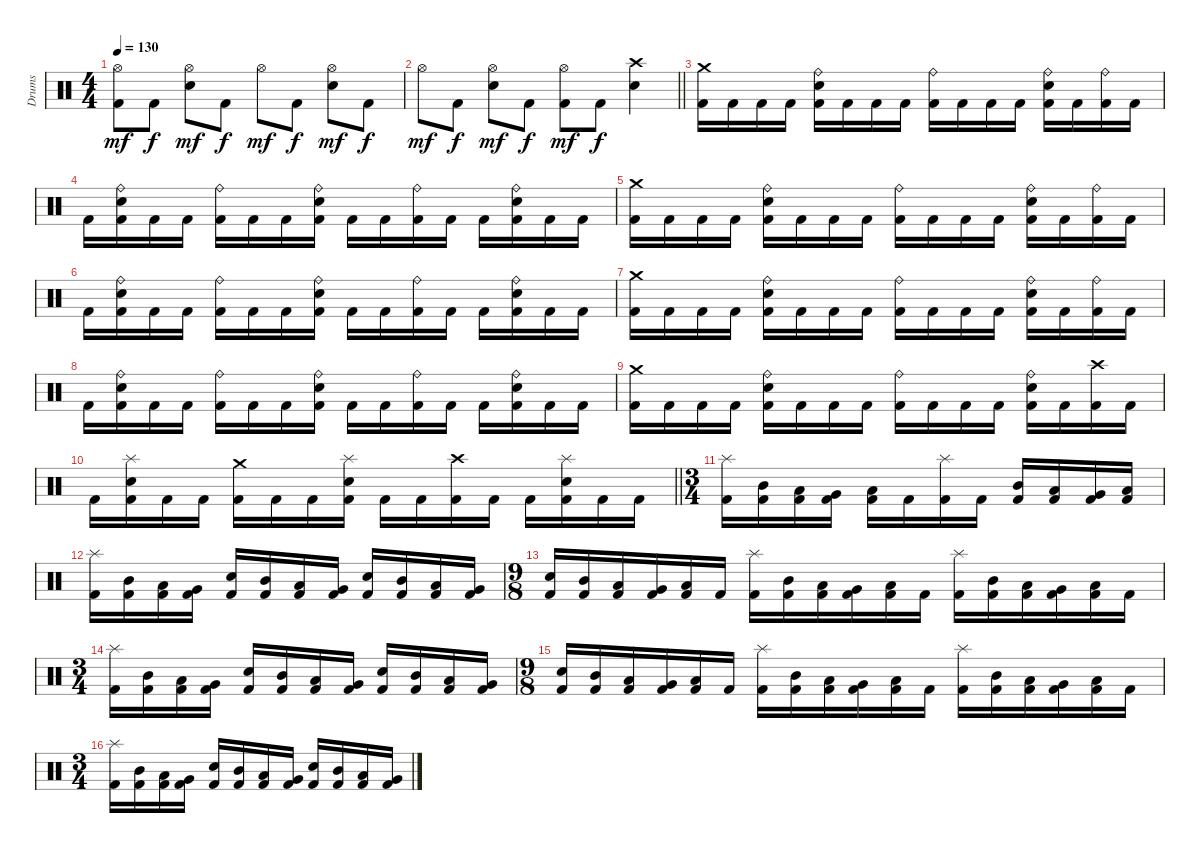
\track ("Drums" "Drums") {instrument percussion}
\staff {score}
\articulation defaults
\ts (4 4)
\tempo 130
\clef neutral
\ks c
("Kick (hit) 2" "Hi-Hat (open)").8{dy mf} "Kick (hit) 2".8{dy f} ("Hi-Hat (open)" "Electric Snare (hit)").8{dy mf} "Kick (hit) 2".8{dy f} "Hi-Hat (open)".8{dy mf} "Kick (hit) 2".8{dy f} ("Hi-Hat (open)" "Electric Snare (hit)").8{dy mf} "Kick (hit) 2".8{dy f} |
\barLineRight lightlight "Hi-Hat (open)".8{dy mf} "Kick (hit) 2".8{dy f}
("Hi-Hat (open)" "Electric Snare (hit)").8{dy mf} "Kick (hit) 2".8{dy f} ("Kick (hit) 2" "Hi-Hat (open)").8{dy mf} "Kick (hit) 2".8{dy f} ("Crash high (hit)" "Electric Snare (hit)").4 |
("Kick (hit) 2" "Crash medium (hit)").16 "Kick (hit) 2".16 "Kick (hit) 2".16 "Kick (hit) 2".16 ("Kick (hit) 2" "Ride (bell)" "Electric Snare (hit)").16 "Kick (hit) 2".16 "Kick (hit) 2".16 "Kick (hit) 2".16 ("Kick (hit) 2" "Ride (bell)").16 "Kick (hit) 2".16 "Kick (hit) 2".16 "Kick (hit) 2".16 ("Kick (hit) 2" "Ride (bell)" "Electric Snare (hit)").16 "Kick (hit) 2".16 ("Kick (hit) 2" "Ride (bell)").16 "Kick (hit) 2".16 |
"Kick (hit) 2".16 ("Kick (hit) 2" "Ride (bell)" "Electric Snare (hit)").16 "Kick (hit) 2".16 "Kick (hit) 2".16 ("Kick (hit) 2" "Ride (bell)").16 "Kick (hit) 2".16 "Kick (hit) 2".16 ("Kick (hit) 2" "Ride (bell)" "Electric Snare (hit)").16 "Kick (hit) 2".16 "Kick (hit) 2".16 ("Kick (hit) 2" "Ride (bell)").16 "Kick (hit) 2".16 "Kick (hit) 2".16 ("Kick (hit) 2" "Ride (bell)" "Electric Snare (hit)").16 "Kick (hit) 2".16 "Kick (hit) 2".16 |
("Kick (hit) 2" "Crash medium (hit)").16 "Kick (hit) 2".16 "Kick (hit) 2".16 "Kick (hit) 2".16 ("Kick (hit) 2" "Ride (bell)" "Electric Snare (hit)").16 "Kick (hit) 2".16 "Kick (hit) 2".16 "Kick (hit) 2".16 ("Kick (hit) 2" "Ride (bell)").16 "Kick (hit) 2".16 "Kick (hit) 2".16 "Kick (hit) 2".16 ("Kick (hit) 2" "Ride (bell)" "Electric Snare (hit)").16 "Kick (hit) 2".16 ("Kick (hit) 2" "Ride (bell)").16 "Kick (hit) 2".16 |
"Kick (hit) 2".16 ("Kick (hit) 2" "Ride (bell)" "Electric Snare (hit)").16 "Kick (hit) 2".16 "Kick (hit) 2".16 ("Kick (hit) 2" "Ride (bell)").16 "Kick (hit) 2".16 "Kick (hit) 2".16 ("Kick (hit) 2" "Ride (bell)" "Electric Snare (hit)").16 "Kick (hit) 2".16 "Kick (hit) 2".16 ("Kick (hit) 2" "Ride (bell)").16 "Kick (hit) 2".16 "Kick (hit) 2".16 ("Kick (hit) 2" "Ride (bell)" "Electric Snare (hit)").16 "Kick (hit) 2".16 "Kick (hit) 2".16 |
("Kick (hit) 2" "Crash medium (hit)").16 "Kick (hit) 2".16 "Kick (hit) 2".16 "Kick (hit) 2".16 ("Kick (hit) 2" "Ride (bell)" "Electric Snare (hit)").16 "Kick (hit) 2".16 "Kick (hit) 2".16 "Kick (hit) 2".16 ("Kick (hit) 2" "Ride (bell)").16 "Kick (hit) 2".16 "Kick (hit) 2".16 "Kick (hit) 2".16 ("Kick (hit) 2" "Ride (bell)" "Electric Snare (hit)").16 "Kick (hit) 2".16 ("Kick (hit) 2" "Ride (bell)").16 "Kick (hit) 2".16 |
"Kick (hit) 2".16 ("Kick (hit) 2" "Ride (bell)" "Electric Snare (hit)").16 "Kick (hit) 2".16 "Kick (hit) 2".16 ("Kick (hit) 2" "Ride (bell)").16 "Kick (hit) 2".16 "Kick (hit) 2".16 ("Kick (hit) 2" "Ride (bell)" "Electric Snare (hit)").16 "Kick (hit) 2".16 "Kick (hit) 2".16 ("Kick (hit) 2" "Ride (bell)").16 "Kick (hit) 2".16 "Kick (hit) 2".16 ("Kick (hit) 2" "Ride (bell)" "Electric Snare (hit)").16 "Kick (hit) 2".16 "Kick (hit) 2".16 |
("Kick (hit) 2" "Crash medium (hit)").16 "Kick (hit) 2".16 "Kick (hit) 2".16 "Kick (hit) 2".16 ("Kick (hit) 2" "Ride (bell)" "Electric Snare (hit)").16 "Kick (hit) 2".16 "Kick (hit) 2".16 "Kick (hit) 2".16 ("Kick (hit) 2" "Ride (bell)").16 "Kick (hit) 2".16 "Kick (hit) 2".16 "Kick (hit) 2".16 ("Kick (hit) 2" "Ride (bell)" "Electric Snare (hit)").16 "Kick (hit) 2".16 ("Kick (hit) 2" "Crash high (hit)").16 "Kick (hit) 2".16 |
\barLineRight lightlight "Kick (hit) 2".16
("Kick (hit) 2" "Splash (hit)" "Electric Snare (hit)").16 "Kick (hit) 2".16 "Kick (hit) 2".16 ("Kick (hit) 2" "Crash medium (hit)").16 "Kick (hit) 2".16 "Kick (hit) 2".16 ("Kick (hit) 2" "Splash (hit)" "Electric Snare (hit)").16 "Kick (hit) 2".16 "Kick (hit) 2".16 ("Kick (hit) 2" "Crash high (hit)").16 "Kick (hit) 2".16 "Kick (hit) 2".16 ("Kick (hit) 2" "Splash (hit)" "Electric Snare (hit)").16 "Kick (hit) 2".16 "Kick (hit) 2".16 |
\ts (3 4)
("Kick (hit) 2" "Splash (hit)").16 ("Kick (hit) 2" "Mid Tom (hit)").16 ("Kick (hit) 2" "Low Tom (hit)").16 ("Kick (hit) 2" "Very Low Tom (hit)").16 ("Kick (hit) 2" "Low Floor Tom (hit)").16 "Kick (hit) 2".16 ("Kick (hit) 2" "Splash (hit)").16 "Kick (hit) 2".16 ("Kick (hit) 2" "Mid Tom (hit)").16 ("Kick (hit) 2" "Low Tom (hit)").16 ("Kick (hit) 2" "Very Low Tom (hit)").16 ("Kick (hit) 2" "Low Floor Tom (hit)").16 |
("Kick (hit) 2" "Splash (hit)").16 ("Kick (hit) 2" "Mid Tom (hit)").16 ("Kick (hit) 2" "Low Tom (hit)").16 ("Kick (hit) 2" "Very Low Tom (hit)").16 ("Kick (hit) 2" "Electric Snare (hit)").16 ("Kick (hit) 2" "Mid Tom (hit)").16 ("Kick (hit) 2" "Low Tom (hit)").16 ("Kick (hit) 2" "Very Low Tom (hit)").16 ("Kick (hit) 2" "Electric Snare (hit)").16 ("Kick (hit) 2" "Mid Tom (hit)").16 ("Kick (hit) 2" "Low Tom (hit)").16 ("Kick (hit) 2" "Very Low Tom (hit)").16 |
\ts (9 8)
("Kick (hit) 2" "Electric Snare (hit)").16 ("Kick (hit) 2" "Mid Tom (hit)").16 ("Kick (hit) 2" "Low Tom (hit)").16 ("Kick (hit) 2" "Very Low Tom (hit)").16 ("Kick (hit) 2" "Low Floor Tom (hit)").16 "Kick (hit) 2".16 ("Kick (hit) 2" "Splash (hit)").16 ("Kick (hit) 2" "Mid Tom (hit)").16 ("Kick (hit) 2" "Low Tom (hit)").16 ("Kick (hit) 2" "Very Low Tom (hit)").16 ("Kick (hit) 2" "Low Floor Tom (hit)").16 "Kick (hit) 2".16 ("Kick (hit) 2" "Splash (hit)").16 ("Kick (hit) 2" "Mid Tom (hit)").16 ("Kick (hit) 2" "Low Tom (hit)").16 ("Kick (hit) 2" "Very Low Tom (hit)").16 ("Kick (hit) 2" "Low Floor Tom (hit)").16 "Kick (hit) 2".16 |
\ts (3 4)
("Kick (hit) 2" "Splash (hit)").16 ("Kick (hit) 2" "Mid Tom (hit)").16 ("Kick (hit) 2" "Low Tom (hit)").16 ("Kick (hit) 2" "Very Low Tom (hit)").16 ("Kick (hit) 2" "Electric Snare (hit)").16 ("Kick (hit) 2" "Mid Tom (hit)").16 ("Kick (hit) 2" "Low Tom (hit)").16 ("Kick (hit) 2" "Very Low Tom (hit)").16 ("Kick (hit) 2" "Electric Snare (hit)").16 ("Kick (hit) 2" "Mid Tom (hit)").16 ("Kick (hit) 2" "Low Tom (hit)").16 ("Kick (hit) 2" "Very Low Tom (hit)").16 |
\ts (9 8)
("Kick (hit) 2" "Electric Snare (hit)").16 ("Kick (hit) 2" "Mid Tom (hit)").16 ("Kick (hit) 2" "Low Tom (hit)").16 ("Kick (hit) 2" "Very Low Tom (hit)").16 ("Kick (hit) 2" "Low Floor Tom (hit)").16 "Kick (hit) 2".16 ("Kick (hit) 2" "Splash (hit)").16 ("Kick (hit) 2" "Mid Tom (hit)").16 ("Kick (hit) 2" "Low Tom (hit)").16 ("Kick (hit) 2" "Very Low Tom (hit)").16 ("Kick (hit) 2" "Low Floor Tom (hit)").16 "Kick (hit) 2".16 ("Kick (hit) 2" "Splash (hit)").16 ("Kick (hit) 2" "Mid Tom (hit)").16 ("Kick (hit) 2" "Low Tom (hit)").16 ("Kick (hit) 2" "Very Low Tom (hit)").16 ("Kick (hit) 2" "Low Floor Tom (hit)").16 "Kick (hit) 2".16 |
\ts (3 4)
("Kick (hit) 2" "Splash (hit)").16 ("Kick (hit) 2" "Mid Tom (hit)").16 ("Kick (hit) 2" "Low Tom (hit)").16 ("Kick (hit) 2" "Very Low Tom (hit)").16 ("Kick (hit) 2" "Electric Snare (hit)").16 ("Kick (hit) 2" "Mid Tom (hit)").16 ("Kick (hit) 2" "Low Tom (hit)").16 ("Kick (hit) 2" "Very Low Tom (hit)").16 ("Kick (hit) 2" "Electric Snare (hit)").16 ("Kick (hit) 2" "Mid Tom (hit)").16 ("Kick (hit) 2" "Low Tom (hit)").16 ("Kick (hit) 2" "Very Low Tom (hit)").16
